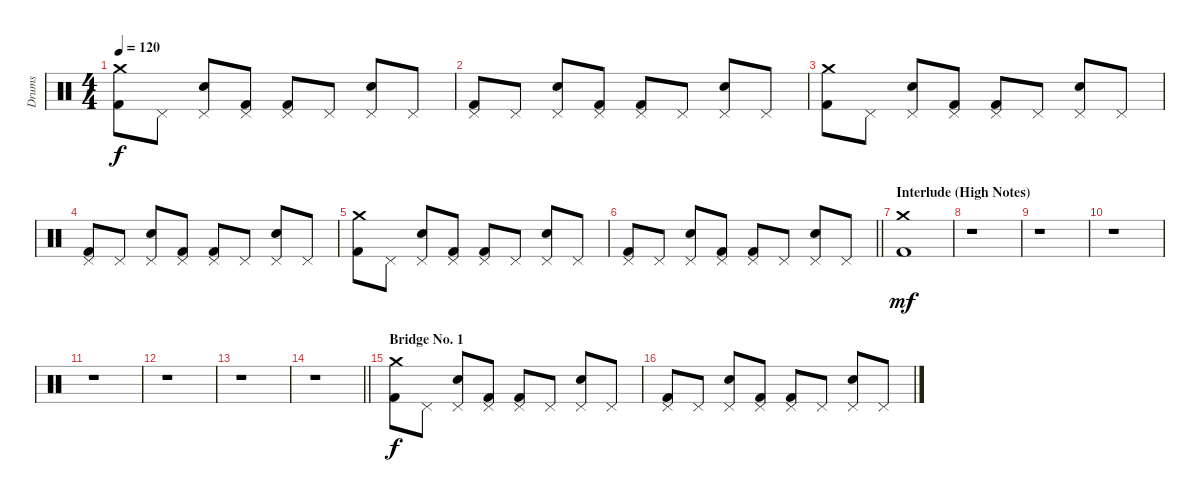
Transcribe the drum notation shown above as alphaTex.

\track ("Drums" "Drums") {instrument percussion}
\staff {score}
\articulation defaults
\ts (4 4)
\tempo 120
\clef neutral
\ks c
("Crash medium (hit)" "Kick (hit) 2").8{dy f} "Pedal Hi-Hat (hit)".8 ("Pedal Hi-Hat (hit)" "Electric Snare (hit)").8 ("Pedal Hi-Hat (hit)" "Kick (hit) 2").8 ("Pedal Hi-Hat (hit)" "Kick (hit) 2").8 "Pedal Hi-Hat (hit)".8 ("Pedal Hi-Hat (hit)" "Electric Snare (hit)").8 "Pedal Hi-Hat (hit)".8 |
("Pedal Hi-Hat (hit)" "Kick (hit) 2").8 "Pedal Hi-Hat (hit)".8 ("Pedal Hi-Hat (hit)" "Electric Snare (hit)").8 ("Pedal Hi-Hat (hit)" "Kick (hit) 2").8 ("Pedal Hi-Hat (hit)" "Kick (hit) 2").8 "Pedal Hi-Hat (hit)".8 ("Pedal Hi-Hat (hit)" "Electric Snare (hit)").8 "Pedal Hi-Hat (hit)".8 |
("Crash medium (hit)" "Kick (hit) 2").8 "Pedal Hi-Hat (hit)".8 ("Pedal Hi-Hat (hit)" "Electric Snare (hit)").8 ("Pedal Hi-Hat (hit)" "Kick (hit) 2").8 ("Pedal Hi-Hat (hit)" "Kick (hit) 2").8 "Pedal Hi-Hat (hit)".8 ("Pedal Hi-Hat (hit)" "Electric Snare (hit)").8 "Pedal Hi-Hat (hit)".8 |
("Pedal Hi-Hat (hit)" "Kick (hit) 2").8 "Pedal Hi-Hat (hit)".8 ("Pedal Hi-Hat (hit)" "Electric Snare (hit)").8 ("Pedal Hi-Hat (hit)" "Kick (hit) 2").8 ("Pedal Hi-Hat (hit)" "Kick (hit) 2").8 "Pedal Hi-Hat (hit)".8 ("Pedal Hi-Hat (hit)" "Electric Snare (hit)").8 "Pedal Hi-Hat (hit)".8 |
("Crash medium (hit)" "Kick (hit) 2").8 "Pedal Hi-Hat (hit)".8 ("Pedal Hi-Hat (hit)" "Electric Snare (hit)").8 ("Pedal Hi-Hat (hit)" "Kick (hit) 2").8 ("Pedal Hi-Hat (hit)" "Kick (hit) 2").8 "Pedal Hi-Hat (hit)".8 ("Pedal Hi-Hat (hit)" "Electric Snare (hit)").8 "Pedal Hi-Hat (hit)".8 |
\barLineRight lightlight
("Pedal Hi-Hat (hit)" "Kick (hit) 2").8 "Pedal Hi-Hat (hit)".8 ("Pedal Hi-Hat (hit)" "Electric Snare (hit)").8 ("Pedal Hi-Hat (hit)" "Kick (hit) 2").8 ("Pedal Hi-Hat (hit)" "Kick (hit) 2").8 "Pedal Hi-Hat (hit)".8 ("Pedal Hi-Hat (hit)" "Electric Snare (hit)").8 "Pedal Hi-Hat (hit)".8 |
\section ("" "Interlude (High Notes)")
("Crash medium (hit)" "Kick (hit) 2").1{dy mf} |
r.1 |
r.1 |
r.1 |
r.1 |
r.1 |
r.1 |
\barLineRight lightlight
r.1 |
\section ("" "Bridge No. 1")
("Crash medium (hit)" "Kick (hit) 2").8{dy f} "Pedal Hi-Hat (hit)".8 ("Pedal Hi-Hat (hit)" "Electric Snare (hit)").8 ("Pedal Hi-Hat (hit)" "Kick (hit) 2").8 ("Pedal Hi-Hat (hit)" "Kick (hit) 2").8 "Pedal Hi-Hat (hit)".8 ("Pedal Hi-Hat (hit)" "Electric Snare (hit)").8 "Pedal Hi-Hat (hit)".8 |
("Pedal Hi-Hat (hit)" "Kick (hit) 2").8 "Pedal Hi-Hat (hit)".8 ("Pedal Hi-Hat (hit)" "Electric Snare (hit)").8 ("Pedal Hi-Hat (hit)" "Kick (hit) 2").8 ("Pedal Hi-Hat (hit)" "Kick (hit) 2").8 "Pedal Hi-Hat (hit)".8 ("Pedal Hi-Hat (hit)" "Electric Snare (hit)").8 "Pedal Hi-Hat (hit)".8
